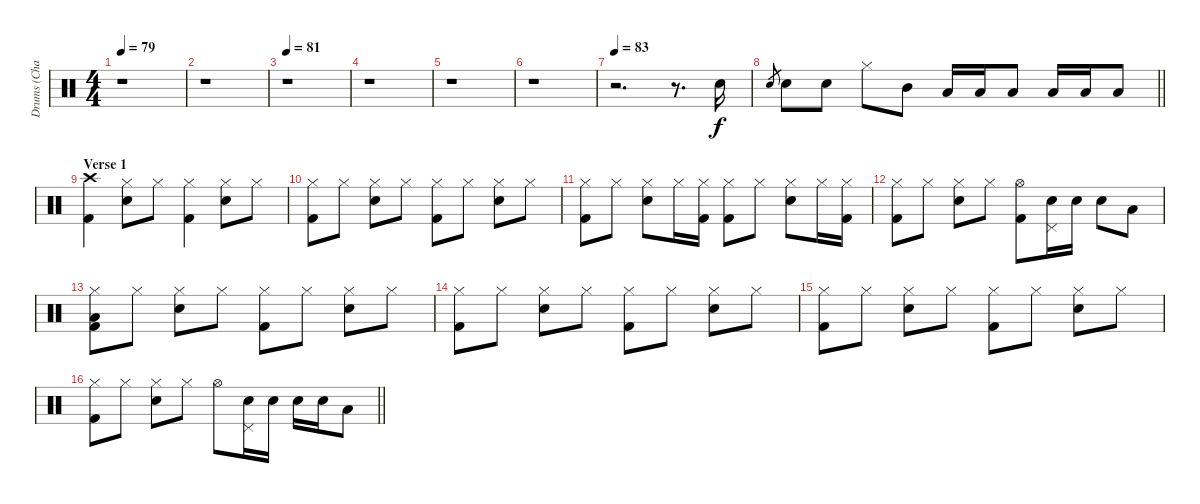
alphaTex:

\track ("Drums (Charlie)" "Drums (Cha") {instrument percussion}
\staff {score}
\articulation defaults
\ts (4 4)
\tempo 79
\clef neutral
\ks c
r.1{dy f} |
r.1 |
\tempo 81
r.1 |
r.1 |
r.1 |
r.1 |
\tempo 83
r.2{d} r.8{d} "Snare (hit) 2".16 |
\barLineRight lightlight "Snare (hit) 2".8{gr} "Snare (hit) 2".8 "Snare (hit) 2".8 "Hi-Hat (closed)".8 "Mid Tom (hit)".8 "Low Tom (hit)".16 "Low Tom (hit)".16 "Low Tom (hit)".8 "Low Tom (hit)".16 "Low Tom (hit)".16 "Low Tom (hit)".8
|
\section ("" "Verse 1")
("Crash high (hit)" "Kick (hit) 2").4 ("Hi-Hat (closed)" "Snare (hit) 2").8 "Hi-Hat (closed)".8 ("Hi-Hat (closed)" "Kick (hit) 2").4 ("Hi-Hat (closed)" "Snare (hit) 2").8 "Hi-Hat (closed)".8 |
("Hi-Hat (closed)" "Kick (hit) 2").8 "Hi-Hat (closed)".8 ("Hi-Hat (closed)" "Snare (hit) 2").8 "Hi-Hat (closed)".8 ("Hi-Hat (closed)" "Kick (hit) 2").8 "Hi-Hat (closed)".8 ("Hi-Hat (closed)" "Snare (hit) 2").8 "Hi-Hat (closed)".8 |
("Hi-Hat (closed)" "Kick (hit) 2").8 "Hi-Hat (closed)".8 ("Hi-Hat (closed)" "Snare (hit) 2").8 "Hi-Hat (closed)".16 ("Hi-Hat (closed)" "Kick (hit) 2").16 ("Hi-Hat (closed)" "Kick (hit) 2").8 "Hi-Hat (closed)".8 ("Hi-Hat (closed)" "Snare (hit) 2").8 "Hi-Hat (closed)".16 ("Hi-Hat (closed)" "Kick (hit) 2").16 |
("Hi-Hat (closed)" "Kick (hit) 2").8 "Hi-Hat (closed)".8 ("Hi-Hat (closed)" "Snare (hit) 2").8 "Hi-Hat (closed)".8 ("Hi-Hat (open)" "Kick (hit) 2").8 ("Pedal Hi-Hat (hit)" "Snare (hit) 2").16 "Snare (hit) 2".16 "Snare (hit) 2".8 "Low Tom (hit)".8 |
("Hi-Hat (closed)" "Low Floor Tom (hit)" "Kick (hit) 2").8 "Hi-Hat (closed)".8 ("Hi-Hat (closed)" "Snare (hit) 2").8 "Hi-Hat (closed)".8 ("Hi-Hat (closed)" "Kick (hit) 2").8 "Hi-Hat (closed)".8 ("Hi-Hat (closed)" "Snare (hit) 2").8 "Hi-Hat (closed)".8 |
("Hi-Hat (closed)" "Kick (hit) 2").8 "Hi-Hat (closed)".8 ("Hi-Hat (closed)" "Snare (hit) 2").8 "Hi-Hat (closed)".8 ("Hi-Hat (closed)" "Kick (hit) 2").8 "Hi-Hat (closed)".8 ("Hi-Hat (closed)" "Snare (hit) 2").8 "Hi-Hat (closed)".8 |
("Hi-Hat (closed)" "Kick (hit) 2").8 "Hi-Hat (closed)".8 ("Hi-Hat (closed)" "Snare (hit) 2").8 "Hi-Hat (closed)".8 ("Hi-Hat (closed)" "Kick (hit) 2").8 "Hi-Hat (closed)".8 ("Hi-Hat (closed)" "Snare (hit) 2").8 "Hi-Hat (closed)".8 |
\barLineRight lightlight
("Hi-Hat (closed)" "Kick (hit) 2").8 "Hi-Hat (closed)".8 ("Hi-Hat (closed)" "Snare (hit) 2").8 "Hi-Hat (closed)".8 "Hi-Hat (open)".8 ("Pedal Hi-Hat (hit)" "Snare (hit) 2").16 "Snare (hit) 2".16 "Snare (hit) 2".16 "Snare (hit) 2".16 "Low Tom (hit)".8
